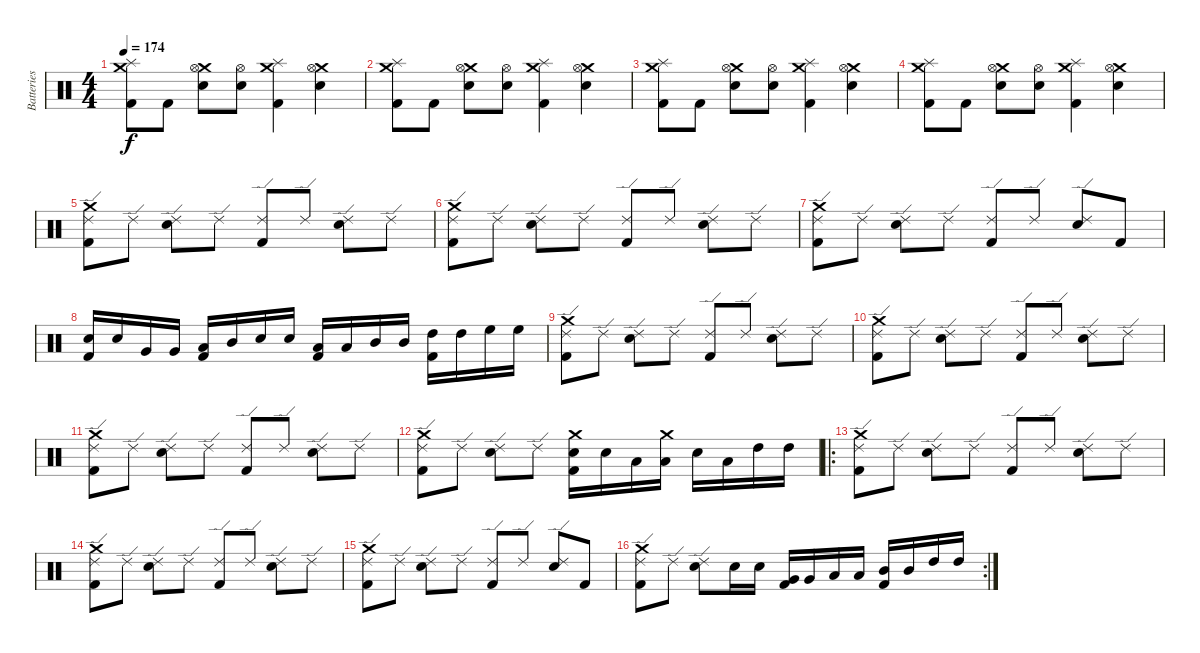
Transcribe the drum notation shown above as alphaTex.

\track ("Batteries" "Batteries") {instrument percussion}
\staff {score}
\articulation defaults
\ts (4 4)
\tempo 174
\clef neutral
\ks c
("Splash (hit)" "Crash medium (hit)" "Kick (hit) 2").8{dy f} "Kick (hit) 2".8 ("Crash medium (hit)" "Hi-Hat (open)" "Electric Snare (hit)").8 ("Hi-Hat (open)" "Electric Snare (hit)").8 ("Crash medium (hit)" "Splash (hit)" "Kick (hit) 2").4 ("Crash medium (hit)" "Hi-Hat (open)" "Electric Snare (hit)").4 |
("Splash (hit)" "Crash medium (hit)" "Kick (hit) 2").8 "Kick (hit) 2".8 ("Crash medium (hit)" "Hi-Hat (open)" "Electric Snare (hit)").8 ("Hi-Hat (open)" "Electric Snare (hit)").8 ("Crash medium (hit)" "Splash (hit)" "Kick (hit) 2").4 ("Crash medium (hit)" "Hi-Hat (open)" "Electric Snare (hit)").4 |
("Splash (hit)" "Crash medium (hit)" "Kick (hit) 2").8 "Kick (hit) 2".8 ("Crash medium (hit)" "Hi-Hat (open)" "Electric Snare (hit)").8 ("Hi-Hat (open)" "Electric Snare (hit)").8 ("Crash medium (hit)" "Splash (hit)" "Kick (hit) 2").4 ("Crash medium (hit)" "Hi-Hat (open)" "Electric Snare (hit)").4 |
("Splash (hit)" "Crash medium (hit)" "Kick (hit) 2").8 "Kick (hit) 2".8 ("Crash medium (hit)" "Hi-Hat (open)" "Electric Snare (hit)").8 ("Hi-Hat (open)" "Electric Snare (hit)").8 ("Crash medium (hit)" "Splash (hit)" "Kick (hit) 2").4 ("Crash medium (hit)" "Hi-Hat (open)" "Electric Snare (hit)").4 |
("Crash medium (hit)" "Ride (edge) 2" "Kick (hit) 2").8 "Ride (edge) 2".8 ("Ride (edge) 2" "Electric Snare (hit)").8 "Ride (edge) 2".8 ("Ride (edge) 2" "Kick (hit) 2").8 "Ride (edge) 2".8 ("Ride (edge) 2" "Electric Snare (hit)").8 "Ride (edge) 2".8 |
("Crash medium (hit)" "Ride (edge) 2" "Kick (hit) 2").8 "Ride (edge) 2".8 ("Ride (edge) 2" "Electric Snare (hit)").8 "Ride (edge) 2".8 ("Ride (edge) 2" "Kick (hit) 2").8 "Ride (edge) 2".8 ("Ride (edge) 2" "Electric Snare (hit)").8 "Ride (edge) 2".8 |
("Crash medium (hit)" "Ride (edge) 2" "Kick (hit) 2").8 "Ride (edge) 2".8 ("Ride (edge) 2" "Electric Snare (hit)").8 "Ride (edge) 2".8 ("Ride (edge) 2" "Kick (hit) 2").8 "Ride (edge) 2".8 ("Ride (edge) 2" "Electric Snare (hit)").8 "Kick (hit) 2".8 |
("Kick (hit) 2" "Electric Snare (hit)").16 "Electric Snare (hit)".16 "Very Low Tom (hit)".16 "Very Low Tom (hit)".16 ("Kick (hit) 2" "Low Tom (hit)").16 "Mid Tom (hit)".16 "Electric Snare (hit)".16 "Electric Snare (hit)".16 ("Kick (hit) 2" "Low Tom (hit)").16 "Low Tom (hit)".16 "Mid Tom (hit)".16 "Mid Tom (hit)".16 ("Kick (hit) 2" "High Tom (hit)").16 "High Tom (hit)".16 "High Floor Tom (hit)".16 "High Floor Tom (hit)".16 |
("Crash medium (hit)" "Ride (edge) 2" "Kick (hit) 2").8 "Ride (edge) 2".8 ("Ride (edge) 2" "Electric Snare (hit)").8 "Ride (edge) 2".8 ("Ride (edge) 2" "Kick (hit) 2").8 "Ride (edge) 2".8 ("Ride (edge) 2" "Electric Snare (hit)").8 "Ride (edge) 2".8 |
("Crash medium (hit)" "Ride (edge) 2" "Kick (hit) 2").8 "Ride (edge) 2".8 ("Ride (edge) 2" "Electric Snare (hit)").8 "Ride (edge) 2".8 ("Ride (edge) 2" "Kick (hit) 2").8 "Ride (edge) 2".8 ("Ride (edge) 2" "Electric Snare (hit)").8 "Ride (edge) 2".8 |
("Crash medium (hit)" "Ride (edge) 2" "Kick (hit) 2").8 "Ride (edge) 2".8 ("Ride (edge) 2" "Electric Snare (hit)").8 "Ride (edge) 2".8 ("Ride (edge) 2" "Kick (hit) 2").8 "Ride (edge) 2".8 ("Ride (edge) 2" "Electric Snare (hit)").8 "Ride (edge) 2".8 |
("Crash medium (hit)" "Ride (edge) 2" "Kick (hit) 2").8 "Ride (edge) 2".8 ("Ride (edge) 2" "Electric Snare (hit)").8 "Ride (edge) 2".8 ("Crash medium (hit)" "Electric Snare (hit)" "Kick (hit) 2").16 "Electric Snare (hit)".16 "Low Tom (hit)".16 ("Crash medium (hit)" "Low Tom (hit)").16 "Electric Snare (hit)".16 "Low Floor Tom (hit)".16 "High Tom (hit)".16 "High Tom (hit)".16 |
\ro
("Crash medium (hit)" "Ride (edge) 2" "Kick (hit) 2").8 "Ride (edge) 2".8 ("Ride (edge) 2" "Electric Snare (hit)").8 "Ride (edge) 2".8 ("Ride (edge) 2" "Kick (hit) 2").8 "Ride (edge) 2".8 ("Ride (edge) 2" "Electric Snare (hit)").8 "Ride (edge) 2".8 |
("Crash medium (hit)" "Ride (edge) 2" "Kick (hit) 2").8 "Ride (edge) 2".8 ("Ride (edge) 2" "Electric Snare (hit)").8 "Ride (edge) 2".8 ("Ride (edge) 2" "Kick (hit) 2").8 "Ride (edge) 2".8 ("Ride (edge) 2" "Electric Snare (hit)").8 "Ride (edge) 2".8 |
("Crash medium (hit)" "Ride (edge) 2" "Kick (hit) 2").8 "Ride (edge) 2".8 ("Ride (edge) 2" "Electric Snare (hit)").8 "Ride (edge) 2".8 ("Ride (edge) 2" "Kick (hit) 2").8 "Ride (edge) 2".8 ("Ride (edge) 2" "Electric Snare (hit)").8 "Kick (hit) 2".8 |
\rc 2
("Crash medium (hit)" "Kick (hit) 2" "Ride (edge) 2").8 "Ride (edge) 2".8 ("Ride (edge) 2" "Electric Snare (hit)").8 "Electric Snare (hit)".16 "Electric Snare (hit)".16 ("Kick (hit) 2" "Very Low Tom (hit)").16 "Very Low Tom (hit)".16 "Low Tom (hit)".16 "Low Tom (hit)".16 ("Kick (hit) 2" "Mid Tom (hit)").16 "Mid Tom (hit)".16 "High Tom (hit)".16 "High Tom (hit)".16
